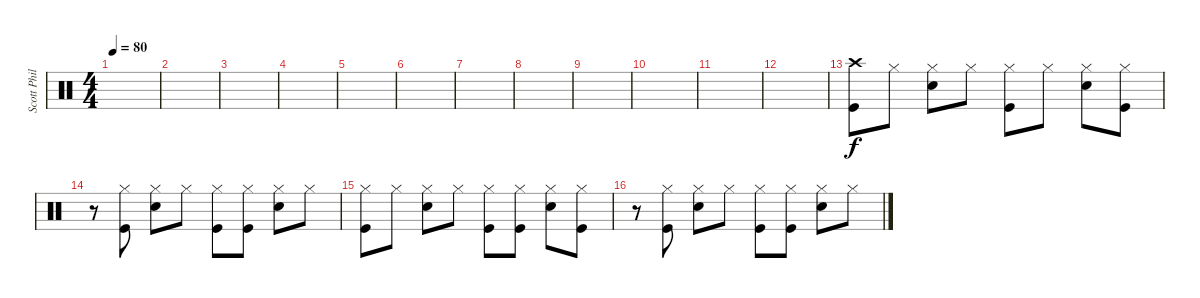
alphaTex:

\track ("Scott Phillips" "Scott Phil") {instrument percussion}
\staff {score}
\articulation defaults
\ts (4 4)
\tempo 80
\clef neutral
\ks c
|
|
|
|
|
|
|
|
|
|
|
|
("Crash high (hit)" "Kick (hit)").8 "Hi-Hat (closed)".8 ("Hi-Hat (closed)" "Snare (hit) 2").8 "Hi-Hat (closed)".8 ("Hi-Hat (closed)" "Kick (hit)").8 "Hi-Hat (closed)".8 ("Hi-Hat (closed)" "Snare (hit) 2").8 ("Hi-Hat (closed)" "Kick (hit)").8 |
r.8 ("Hi-Hat (closed)" "Kick (hit)").8 ("Hi-Hat (closed)" "Snare (hit) 2").8 "Hi-Hat (closed)".8 ("Hi-Hat (closed)" "Kick (hit)").8 ("Hi-Hat (closed)" "Kick (hit)").8 ("Hi-Hat (closed)" "Snare (hit) 2").8 "Hi-Hat (closed)".8 |
("Hi-Hat (closed)" "Kick (hit)").8 "Hi-Hat (closed)".8 ("Hi-Hat (closed)" "Snare (hit) 2").8 "Hi-Hat (closed)".8 ("Hi-Hat (closed)" "Kick (hit)").8 ("Hi-Hat (closed)" "Kick (hit)").8 ("Hi-Hat (closed)" "Snare (hit) 2").8 ("Hi-Hat (closed)" "Kick (hit)").8 |
r.8 ("Hi-Hat (closed)" "Kick (hit)").8 ("Hi-Hat (closed)" "Snare (hit) 2").8 "Hi-Hat (closed)".8 ("Hi-Hat (closed)" "Kick (hit)").8 ("Hi-Hat (closed)" "Kick (hit)").8 ("Hi-Hat (closed)" "Snare (hit) 2").8 "Hi-Hat (closed)".8
